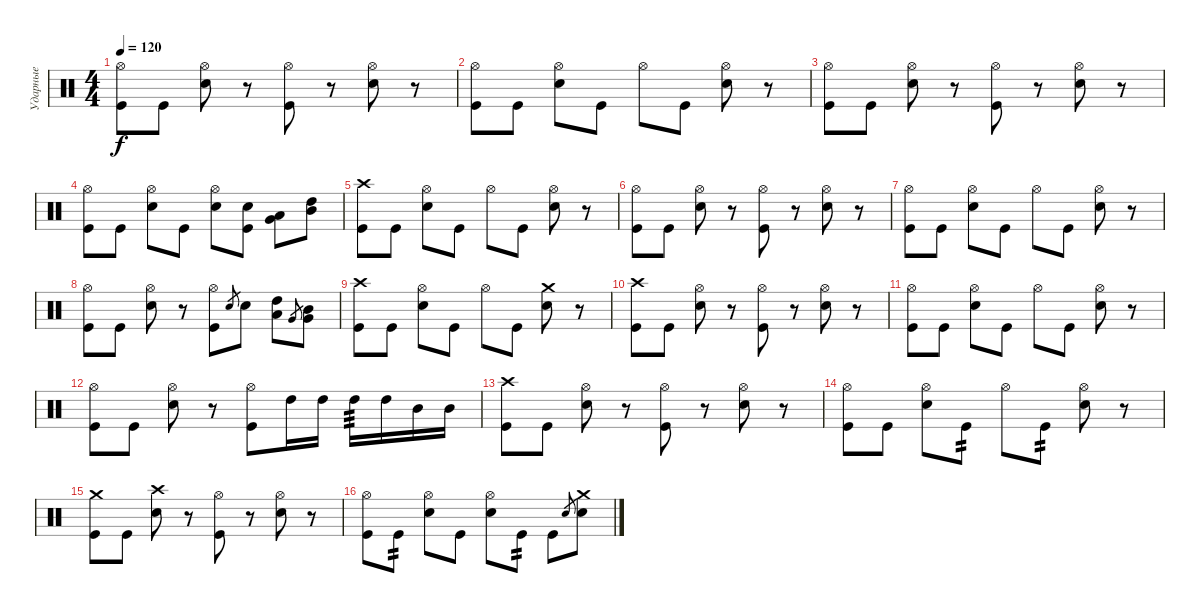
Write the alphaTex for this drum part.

\track ("Ударные" "Ударные") {instrument percussion}
\staff {score}
\articulation defaults
\ts (4 4)
\tempo 120
\clef neutral
\ks c
("Hi-Hat (open)" "Kick (hit)").8{dy f} "Kick (hit)".8 ("Hi-Hat (open)" "Snare (hit) 2").8 r.8 ("Hi-Hat (open)" "Kick (hit)").8 r.8 ("Hi-Hat (open)" "Snare (hit) 2").8 r.8 |
("Hi-Hat (open)" "Kick (hit)").8 "Kick (hit)".8 ("Hi-Hat (open)" "Snare (hit) 2").8 "Kick (hit)".8 "Hi-Hat (open)".8 "Kick (hit)".8 ("Hi-Hat (open)" "Snare (hit) 2").8 r.8 |
("Hi-Hat (open)" "Kick (hit)").8 "Kick (hit)".8 ("Hi-Hat (open)" "Snare (hit) 2").8 r.8 ("Hi-Hat (open)" "Kick (hit)").8 r.8 ("Hi-Hat (open)" "Snare (hit) 2").8 r.8 |
("Hi-Hat (open)" "Kick (hit)").8 "Kick (hit)".8 ("Hi-Hat (open)" "Snare (hit) 2").8 "Kick (hit)".8 ("Hi-Hat (open)" "Snare (hit) 2").8 ("Snare (hit) 2" "Kick (hit)").8 ("Low Tom (hit)" "Very Low Tom (hit)").8 ("High Tom (hit)" "Mid Tom (hit)").8 |
("Crash high (hit)" "Kick (hit)").8 "Kick (hit)".8 ("Hi-Hat (open)" "Snare (hit) 2").8 "Kick (hit)".8 "Hi-Hat (open)".8 "Kick (hit)".8 ("Hi-Hat (open)" "Snare (hit) 2").8 r.8 |
("Hi-Hat (open)" "Kick (hit)").8 "Kick (hit)".8 ("Hi-Hat (open)" "Snare (hit) 2").8 r.8 ("Hi-Hat (open)" "Kick (hit)").8 r.8 ("Hi-Hat (open)" "Snare (hit) 2").8 r.8 |
("Hi-Hat (open)" "Kick (hit)").8 "Kick (hit)".8 ("Hi-Hat (open)" "Snare (hit) 2").8 "Kick (hit)".8 "Hi-Hat (open)".8 "Kick (hit)".8 ("Hi-Hat (open)" "Snare (hit) 2").8 r.8 |
("Hi-Hat (open)" "Kick (hit)").8 "Kick (hit)".8 ("Hi-Hat (open)" "Snare (hit) 2").8 r.8 ("Hi-Hat (open)" "Kick (hit)").8 "Snare (hit) 2".8{gr} "Snare (hit) 2".8 ("High Tom (hit)" "Low Tom (hit)").8 "Very Low Tom (hit)".8{gr} ("Mid Tom (hit)" "Very Low Tom (hit)").8 |
("Crash high (hit)" "Kick (hit)").8 "Kick (hit)".8 ("Hi-Hat (open)" "Snare (hit) 2").8 "Kick (hit)".8 "Hi-Hat (open)".8 "Kick (hit)".8 ("Crash medium (hit)" "Snare (hit) 2").8 r.8 |
("Crash high (hit)" "Kick (hit)").8 "Kick (hit)".8 ("Hi-Hat (open)" "Snare (hit) 2").8 r.8 ("Hi-Hat (open)" "Kick (hit)").8 r.8 ("Hi-Hat (open)" "Snare (hit) 2").8 r.8 |
("Hi-Hat (open)" "Kick (hit)").8 "Kick (hit)".8 ("Hi-Hat (open)" "Snare (hit) 2").8 "Kick (hit)".8 "Hi-Hat (open)".8 "Kick (hit)".8 ("Hi-Hat (open)" "Snare (hit) 2").8 r.8 |
("Hi-Hat (open)" "Kick (hit)").8 "Kick (hit)".8 ("Hi-Hat (open)" "Snare (hit) 2").8 r.8 ("Hi-Hat (open)" "Kick (hit)").8 "High Tom (hit)".16 "High Tom (hit)".16 "High Tom (hit)".16{tp 3} "High Tom (hit)".16 "Mid Tom (hit)".16 "Mid Tom (hit)".16 |
("Crash high (hit)" "Kick (hit)").8 "Kick (hit)".8 ("Hi-Hat (open)" "Snare (hit) 2").8 r.8 ("Hi-Hat (open)" "Kick (hit)").8 r.8 ("Hi-Hat (open)" "Snare (hit) 2").8 r.8 |
("Hi-Hat (open)" "Kick (hit)").8 "Kick (hit)".8 ("Hi-Hat (open)" "Snare (hit) 2").8 "Kick (hit)".8{tp 2} "Hi-Hat (open)".8 "Kick (hit)".8{tp 2} ("Hi-Hat (open)" "Snare (hit) 2").8 r.8 |
("Crash medium (hit)" "Kick (hit)").8 "Kick (hit)".8 ("Crash high (hit)" "Snare (hit) 2").8 r.8 ("Hi-Hat (open)" "Kick (hit)").8 r.8 ("Hi-Hat (open)" "Snare (hit) 2").8 r.8 |
("Hi-Hat (open)" "Kick (hit)").8 "Kick (hit)".8{tp 2} ("Hi-Hat (open)" "Snare (hit) 2").8 "Kick (hit)".8 ("Hi-Hat (open)" "Snare (hit) 2").8 "Kick (hit)".8{tp 2} "Kick (hit)".8 "Snare (hit) 2".8{gr} ("Crash medium (hit)" "Snare (hit) 2").8
